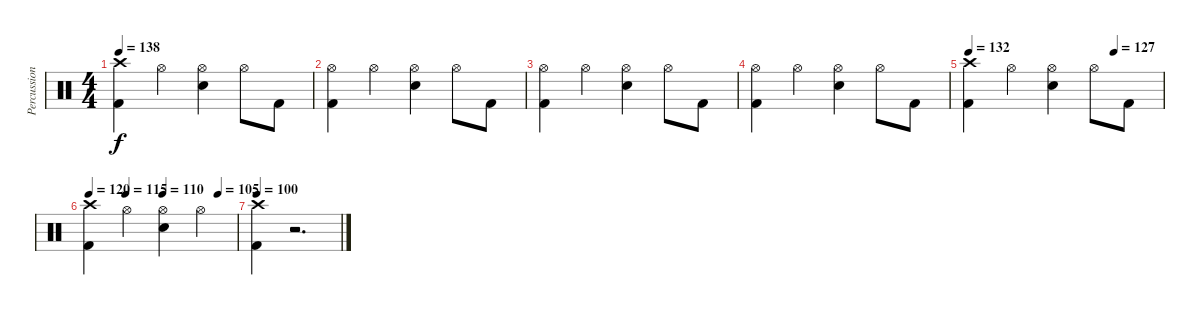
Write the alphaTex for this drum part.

\track ("Percussion" "Percussion") {instrument percussion}
\staff {score}
\articulation defaults
\ts (4 4)
\tempo 138
\clef neutral
\ks c
("Crash high (hit)" "Kick (hit) 2").4{dy f} "Hi-Hat (open)".4 ("Hi-Hat (open)" "Electric Snare (hit)").4 "Hi-Hat (open)".8 "Kick (hit) 2".8 |
("Hi-Hat (open)" "Kick (hit) 2").4 "Hi-Hat (open)".4 ("Hi-Hat (open)" "Electric Snare (hit)").4 "Hi-Hat (open)".8 "Kick (hit) 2".8 |
("Hi-Hat (open)" "Kick (hit) 2").4 "Hi-Hat (open)".4 ("Hi-Hat (open)" "Electric Snare (hit)").4 "Hi-Hat (open)".8 "Kick (hit) 2".8 |
("Hi-Hat (open)" "Kick (hit) 2").4 "Hi-Hat (open)".4 ("Hi-Hat (open)" "Electric Snare (hit)").4 "Hi-Hat (open)".8 "Kick (hit) 2".8 |
\tempo 132
\tempo (127 0.75)
("Crash high (hit)" "Kick (hit) 2").4 "Hi-Hat (open)".4 ("Hi-Hat (open)" "Electric Snare (hit)").4 "Hi-Hat (open)".8 "Kick (hit) 2".8 |
\tempo 120
\tempo (115 0.25)
\tempo (110 0.5)
\tempo (105 0.875)
("Crash high (hit)" "Kick (hit) 2").4 "Hi-Hat (open)".4 ("Hi-Hat (open)" "Electric Snare (hit)").4 "Hi-Hat (open)".4 |
\tempo 100
("Crash high (hit)" "Kick (hit) 2").4 r.2{d}
